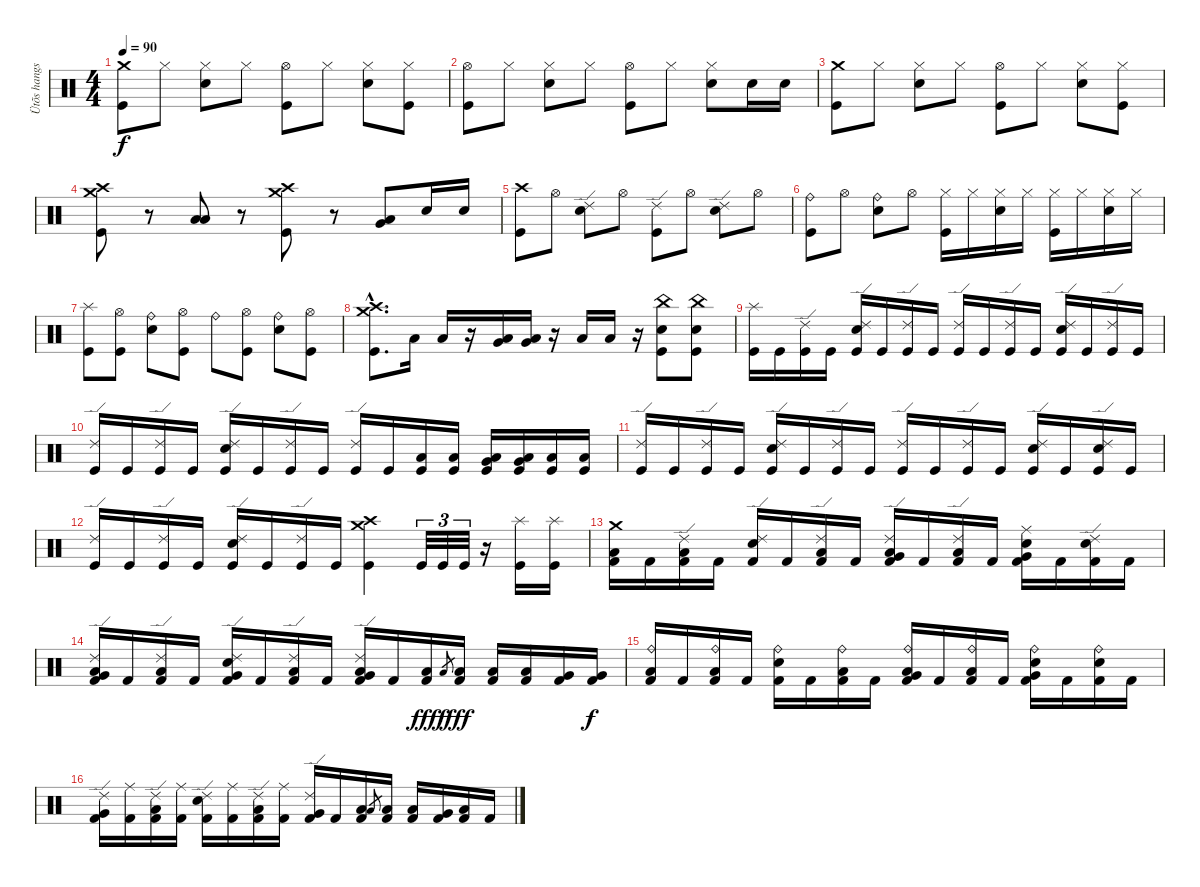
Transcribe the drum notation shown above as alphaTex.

\track ("Ütõs hangszer" "Ütõs hangs") {instrument percussion}
\staff {score}
\articulation defaults
\ts (4 4)
\tempo 90
\clef neutral
\ks c
("Crash medium (hit)" "Kick (hit)").8{dy f} "Hi-Hat (closed)".8 ("Hi-Hat (closed)" "Snare (hit) 2").8 "Hi-Hat (closed)".8 ("Hi-Hat (open)" "Kick (hit)").8 "Hi-Hat (closed)".8 ("Hi-Hat (closed)" "Snare (hit) 2").8 ("Hi-Hat (closed)" "Kick (hit)").8 |
("Hi-Hat (open)" "Kick (hit)").8 "Hi-Hat (closed)".8 ("Hi-Hat (closed)" "Snare (hit) 2").8 "Hi-Hat (closed)".8 ("Hi-Hat (open)" "Kick (hit)").8 "Hi-Hat (closed)".8 ("Hi-Hat (closed)" "Snare (hit) 2").8 "Snare (hit) 2".16 "Snare (hit) 2".16 |
("Crash medium (hit)" "Kick (hit)").8 "Hi-Hat (closed)".8 ("Hi-Hat (closed)" "Snare (hit) 2").8 "Hi-Hat (closed)".8 ("Hi-Hat (open)" "Kick (hit)").8 "Hi-Hat (closed)".8 ("Hi-Hat (closed)" "Snare (hit) 2").8 ("Hi-Hat (closed)" "Kick (hit)").8 |
("Crash medium (hit)" "Crash high (hit)" "Kick (hit)").8 r.8 ("Low Tom (hit)" "Low Floor Tom (hit)").8 r.8 ("Crash medium (hit)" "Crash high (hit)" "Kick (hit)").8 r.8 ("Very Low Tom (hit)" "Low Floor Tom (hit)").8 "Snare (hit) 2".16 "Snare (hit) 2".16 |
("Crash high (hit)" "Kick (hit)").8 "Hi-Hat (open)".8 ("Ride (edge) 2" "Snare (hit) 2").8 "Hi-Hat (open)".8 ("Ride (edge) 2" "Kick (hit)").8 "Hi-Hat (open)".8 ("Ride (edge) 2" "Snare (hit) 2").8 "Hi-Hat (open)".8 |
("Ride (bell)" "Kick (hit)").8 "Hi-Hat (open)".8 ("Ride (bell)" "Snare (hit) 2").8 "Hi-Hat (open)".8 ("Hi-Hat (closed)" "Kick (hit)").16 "Hi-Hat (closed)".16 ("Hi-Hat (closed)" "Snare (hit) 2").16 "Hi-Hat (closed)".16 ("Hi-Hat (closed)" "Kick (hit)").16 "Hi-Hat (closed)".16 ("Hi-Hat (closed)" "Snare (hit) 2").16 "Hi-Hat (closed)".16 |
("Splash (hit)" "Kick (hit)").8 ("Hi-Hat (open)" "Kick (hit)").8 ("Ride (bell)" "Snare (hit) 2").8 ("Hi-Hat (open)" "Kick (hit)").8 "Ride (bell)".8 ("Hi-Hat (open)" "Kick (hit)").8 ("Ride (bell)" "Snare (hit) 2").8 ("Hi-Hat (open)" "Kick (hit)").8 |
("Crash medium (hit)"{hac} "Crash high (hit)"{hac} "Kick (hit)"{hac}).8{d} "Low Tom (hit)".16 "Low Tom (hit)".16 r.16 ("Very Low Tom (hit)" "Low Floor Tom (hit)").16 ("Very Low Tom (hit)" "Low Floor Tom (hit)").16 r.16 "Low Floor Tom (hit)".16 "Low Floor Tom (hit)".16 r.16 ("China (hit)" "Snare (hit) 2" "Kick (hit)").8 ("China (hit)" "Snare (hit) 2" "Kick (hit)").8 |
("Splash (hit)" "Kick (hit)").16 "Kick (hit)".16 ("Ride (edge) 2" "Kick (hit)").16 "Kick (hit)".16 ("Ride (edge) 2" "Snare (hit) 2" "Kick (hit)").16 "Kick (hit)".16 ("Ride (edge) 2" "Kick (hit)").16 "Kick (hit)".16 ("Ride (edge) 2" "Kick (hit)").16 "Kick (hit)".16 ("Ride (edge) 2" "Kick (hit)").16 "Kick (hit)".16 ("Ride (edge) 2" "Snare (hit) 2" "Kick (hit)").16 "Kick (hit)".16 ("Ride (edge) 2" "Kick (hit)").16 "Kick (hit)".16 |
("Ride (edge) 2" "Kick (hit)").16 "Kick (hit)".16 ("Ride (edge) 2" "Kick (hit)").16 "Kick (hit)".16 ("Ride (edge) 2" "Snare (hit) 2" "Kick (hit)").16 "Kick (hit)".16 ("Ride (edge) 2" "Kick (hit)").16 "Kick (hit)".16 ("Ride (edge) 2" "Kick (hit)").16 "Kick (hit)".16 ("Low Tom (hit)" "Kick (hit)").16 ("Low Tom (hit)" "Kick (hit)").16 ("Very Low Tom (hit)" "Low Floor Tom (hit)" "Kick (hit)").16 ("Very Low Tom (hit)" "Low Floor Tom (hit)" "Kick (hit)").16 ("Low Floor Tom (hit)" "Kick (hit)").16 ("Low Floor Tom (hit)" "Kick (hit)").16 |
("Ride (edge) 2" "Kick (hit)").16 "Kick (hit)".16 ("Ride (edge) 2" "Kick (hit)").16 "Kick (hit)".16 ("Ride (edge) 2" "Snare (hit) 2" "Kick (hit)").16 "Kick (hit)".16 ("Ride (edge) 2" "Kick (hit)").16 "Kick (hit)".16 ("Ride (edge) 2" "Kick (hit)").16 "Kick (hit)".16 ("Ride (edge) 2" "Kick (hit)").16 "Kick (hit)".16 ("Ride (edge) 2" "Snare (hit) 2" "Kick (hit)").16 "Kick (hit)".16 ("Ride (edge) 2" "Snare (hit) 2" "Kick (hit)").16 "Kick (hit)".16 |
("Ride (edge) 2" "Kick (hit)").16 "Kick (hit)".16 ("Ride (edge) 2" "Kick (hit)").16 "Kick (hit)".16 ("Ride (edge) 2" "Snare (hit) 2" "Kick (hit)").16 "Kick (hit)".16 ("Ride (edge) 2" "Kick (hit)").16 "Kick (hit)".16 ("Crash medium (hit)" "Crash high (hit)" "Kick (hit)").4 "Kick (hit)".32{tu (3 2)} "Kick (hit)".32{tu (3 2)} "Kick (hit)".32{tu (3 2)} r.16 ("Splash (hit)" "Kick (hit)").16 ("Splash (hit)" "Kick (hit)").16 |
("Crash medium (hit)" "Low Tom (hit)" "Kick (hit) 2").16 "Kick (hit) 2".16 ("Ride (edge) 2" "Low Tom (hit)" "Kick (hit) 2").16 "Kick (hit) 2".16 ("Ride (edge) 2" "Electric Snare (hit)" "Kick (hit) 2").16 "Kick (hit) 2".16 ("Ride (edge) 2" "Low Floor Tom (hit)" "Kick (hit) 2").16 "Kick (hit) 2".16 ("Ride (edge) 2" "Low Tom (hit)" "Very Low Tom (hit)" "Kick (hit) 2").16 "Kick (hit) 2".16 ("Ride (edge) 2" "Low Tom (hit)" "Kick (hit) 2").16 "Kick (hit) 2".16 ("Ride (middle)" "Very Low Tom (hit)" "Electric Snare (hit)" "Kick (hit) 2").16 "Kick (hit) 2".16 ("Ride (edge) 2" "Electric Snare (hit)" "Kick (hit) 2").16 "Kick (hit) 2".16 |
("Ride (edge) 2" "Low Tom (hit)" "Very Low Tom (hit)" "Kick (hit) 2").16 "Kick (hit) 2".16 ("Ride (edge) 2" "Low Tom (hit)" "Kick (hit) 2").16 "Kick (hit) 2".16 ("Ride (edge) 2" "Very Low Tom (hit)" "Electric Snare (hit)" "Kick (hit) 2").16 "Kick (hit) 2".16 ("Ride (edge) 2" "Low Floor Tom (hit)" "Kick (hit) 2").16 "Kick (hit) 2".16 ("Ride (edge) 2" "Low Tom (hit)" "Very Low Tom (hit)" "Kick (hit) 2").16 "Kick (hit) 2".16 ("Low Floor Tom (hit)" "Kick (hit) 2").16{dy fff} "Low Tom (hit)".8{gr dy f} ("Low Floor Tom (hit)" "Kick (hit) 2").16{dy fff} ("Low Tom (hit)" "Kick (hit) 2").16 ("Low Tom (hit)" "Kick (hit) 2").16 ("Very Low Tom (hit)" "Kick (hit) 2").16 ("Very Low Tom (hit)" "Kick (hit) 2").16{dy f} |
("Ride (bell)" "Low Tom (hit)" "Kick (hit) 2").16 "Kick (hit) 2".16 ("Ride (bell)" "Low Tom (hit)" "Kick (hit) 2").16 "Kick (hit) 2".16 ("Ride (bell)" "Electric Snare (hit)" "Kick (hit) 2").16 "Kick (hit) 2".16 ("Ride (bell)" "Low Floor Tom (hit)" "Kick (hit) 2").16 "Kick (hit) 2".16 ("Ride (bell)" "Low Tom (hit)" "Very Low Tom (hit)" "Kick (hit) 2").16 "Kick (hit) 2".16 ("Ride (bell)" "Low Tom (hit)" "Kick (hit) 2").16 "Kick (hit) 2".16 ("Ride (bell)" "Very Low Tom (hit)" "Electric Snare (hit)" "Kick (hit) 2").16 "Kick (hit) 2".16 ("Ride (bell)" "Electric Snare (hit)" "Kick (hit) 2").16 "Kick (hit) 2".16 |
("Ride (edge) 2" "Very Low Tom (hit)" "Kick (hit) 2").16 ("Ride (middle)" "Kick (hit) 2").16 ("Ride (edge) 2" "Low Tom (hit)" "Kick (hit) 2").16 ("Ride (middle)" "Kick (hit) 2").16 ("Ride (edge) 2" "Electric Snare (hit)" "Kick (hit) 2").16 ("Ride (middle)" "Kick (hit) 2").16 ("Ride (edge) 2" "Low Floor Tom (hit)" "Kick (hit) 2").16 ("Ride (middle)" "Kick (hit) 2").16 ("Ride (edge) 2" "Very Low Tom (hit)" "Kick (hit) 2").16 "Kick (hit) 2".16 ("Low Tom (hit)" "Kick (hit) 2").16 "Low Tom (hit)".8{gr} ("Low Tom (hit)" "Kick (hit) 2").16 ("Low Tom (hit)" "Kick (hit) 2").16 ("Very Low Tom (hit)" "Kick (hit) 2").16 ("Low Floor Tom (hit)" "Kick (hit) 2").16 "Kick (hit) 2".16
